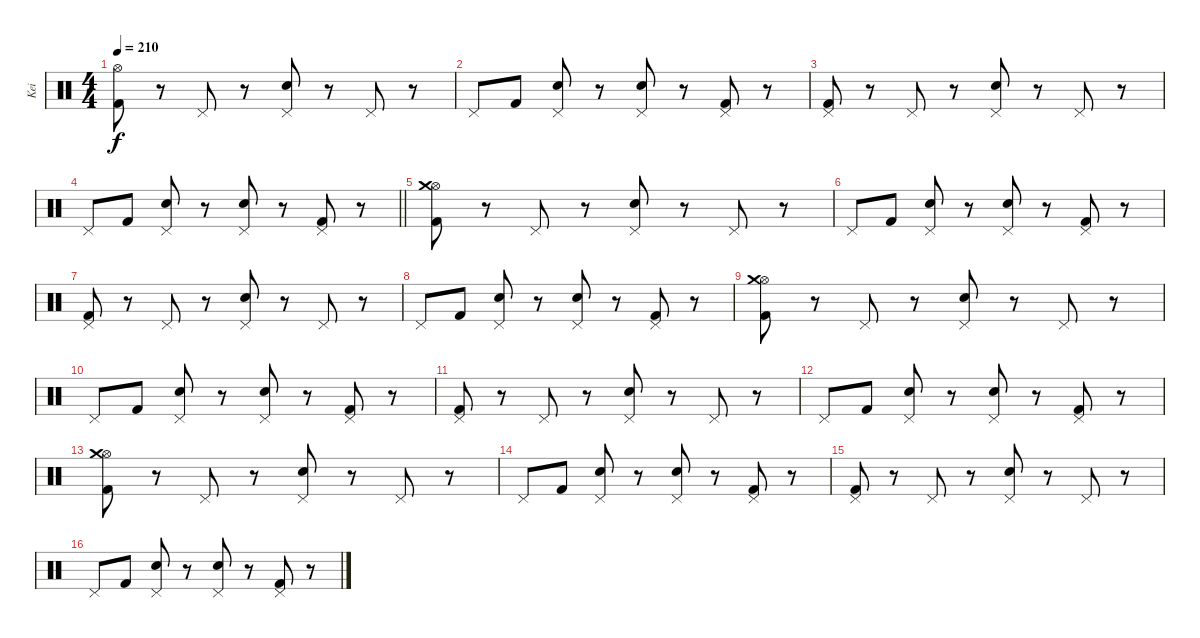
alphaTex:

\track ("Kei" "Kei") {instrument percussion}
\staff {score}
\articulation defaults
\ts (4 4)
\tempo 210
\clef neutral
\ks c
("Hi-Hat (open)" "Kick (hit) 2").8{dy f} r.8 "Pedal Hi-Hat (hit)".8 r.8 ("Pedal Hi-Hat (hit)" "Electric Snare (hit)").8 r.8 "Pedal Hi-Hat (hit)".8 r.8 |
"Pedal Hi-Hat (hit)".8 "Kick (hit) 2".8 ("Pedal Hi-Hat (hit)" "Electric Snare (hit)").8 r.8 ("Pedal Hi-Hat (hit)" "Electric Snare (hit)").8 r.8 ("Pedal Hi-Hat (hit)" "Kick (hit) 2").8 r.8 |
("Pedal Hi-Hat (hit)" "Kick (hit) 2").8 r.8 "Pedal Hi-Hat (hit)".8 r.8 ("Pedal Hi-Hat (hit)" "Electric Snare (hit)").8 r.8 "Pedal Hi-Hat (hit)".8 r.8 |
\barLineRight lightlight "Pedal Hi-Hat (hit)".8 "Kick (hit) 2".8
("Pedal Hi-Hat (hit)" "Electric Snare (hit)").8 r.8 ("Pedal Hi-Hat (hit)" "Electric Snare (hit)").8 r.8 ("Pedal Hi-Hat (hit)" "Kick (hit) 2").8 r.8 |
("Hi-Hat (open)" "Crash medium (hit)" "Kick (hit) 2").8 r.8 "Pedal Hi-Hat (hit)".8 r.8 ("Pedal Hi-Hat (hit)" "Electric Snare (hit)").8 r.8 "Pedal Hi-Hat (hit)".8 r.8 |
"Pedal Hi-Hat (hit)".8 "Kick (hit) 2".8 ("Pedal Hi-Hat (hit)" "Electric Snare (hit)").8 r.8 ("Pedal Hi-Hat (hit)" "Electric Snare (hit)").8 r.8 ("Pedal Hi-Hat (hit)" "Kick (hit) 2").8 r.8 |
("Pedal Hi-Hat (hit)" "Kick (hit) 2").8 r.8 "Pedal Hi-Hat (hit)".8 r.8 ("Pedal Hi-Hat (hit)" "Electric Snare (hit)").8 r.8 "Pedal Hi-Hat (hit)".8 r.8 |
"Pedal Hi-Hat (hit)".8 "Kick (hit) 2".8 ("Pedal Hi-Hat (hit)" "Electric Snare (hit)").8 r.8 ("Pedal Hi-Hat (hit)" "Electric Snare (hit)").8 r.8 ("Pedal Hi-Hat (hit)" "Kick (hit) 2").8 r.8 |
("Hi-Hat (open)" "Crash medium (hit)" "Kick (hit) 2").8 r.8 "Pedal Hi-Hat (hit)".8 r.8 ("Pedal Hi-Hat (hit)" "Electric Snare (hit)").8 r.8 "Pedal Hi-Hat (hit)".8 r.8 |
"Pedal Hi-Hat (hit)".8 "Kick (hit) 2".8 ("Pedal Hi-Hat (hit)" "Electric Snare (hit)").8 r.8 ("Pedal Hi-Hat (hit)" "Electric Snare (hit)").8 r.8 ("Pedal Hi-Hat (hit)" "Kick (hit) 2").8 r.8 |
("Pedal Hi-Hat (hit)" "Kick (hit) 2").8 r.8 "Pedal Hi-Hat (hit)".8 r.8 ("Pedal Hi-Hat (hit)" "Electric Snare (hit)").8 r.8 "Pedal Hi-Hat (hit)".8 r.8 |
"Pedal Hi-Hat (hit)".8 "Kick (hit) 2".8 ("Pedal Hi-Hat (hit)" "Electric Snare (hit)").8 r.8 ("Pedal Hi-Hat (hit)" "Electric Snare (hit)").8 r.8 ("Pedal Hi-Hat (hit)" "Kick (hit) 2").8 r.8 |
("Hi-Hat (open)" "Crash medium (hit)" "Kick (hit) 2").8 r.8 "Pedal Hi-Hat (hit)".8 r.8 ("Pedal Hi-Hat (hit)" "Electric Snare (hit)").8 r.8 "Pedal Hi-Hat (hit)".8 r.8 |
"Pedal Hi-Hat (hit)".8 "Kick (hit) 2".8 ("Pedal Hi-Hat (hit)" "Electric Snare (hit)").8 r.8 ("Pedal Hi-Hat (hit)" "Electric Snare (hit)").8 r.8 ("Pedal Hi-Hat (hit)" "Kick (hit) 2").8 r.8 |
("Pedal Hi-Hat (hit)" "Kick (hit) 2").8 r.8 "Pedal Hi-Hat (hit)".8 r.8 ("Pedal Hi-Hat (hit)" "Electric Snare (hit)").8 r.8 "Pedal Hi-Hat (hit)".8 r.8 |
"Pedal Hi-Hat (hit)".8 "Kick (hit) 2".8 ("Pedal Hi-Hat (hit)" "Electric Snare (hit)").8 r.8 ("Pedal Hi-Hat (hit)" "Electric Snare (hit)").8 r.8 ("Pedal Hi-Hat (hit)" "Kick (hit) 2").8 r.8
